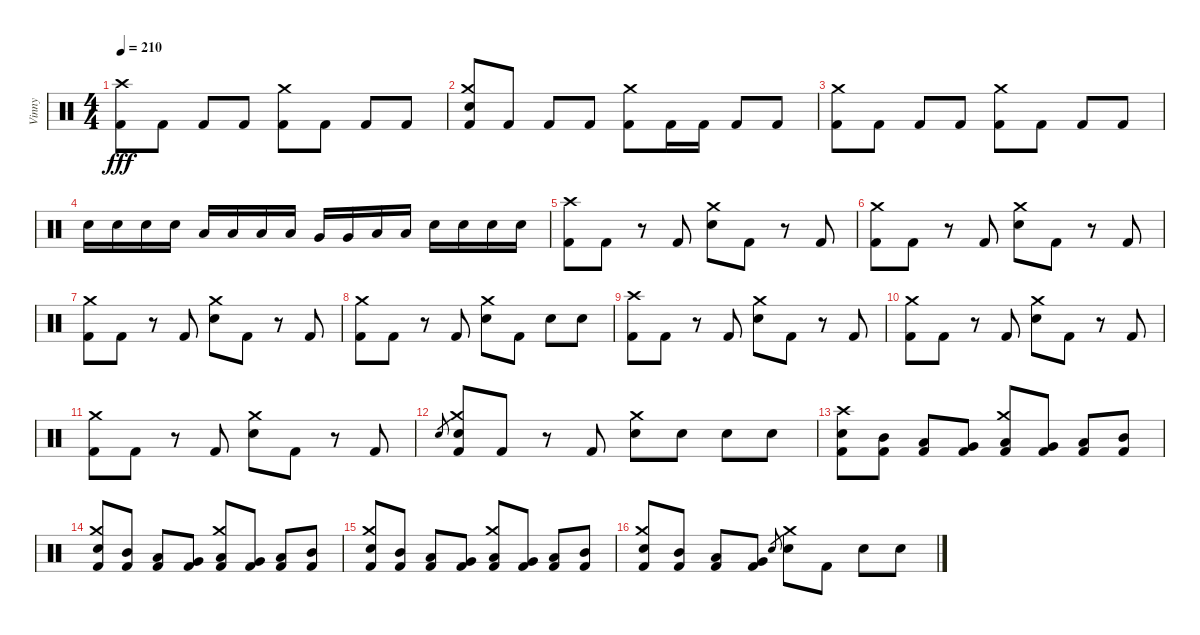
\track ("Vinny" "Vinny") {instrument percussion}
\staff {score}
\articulation defaults
\ts (4 4)
\tempo 210
\clef neutral
\ks c
("Crash high (hit)" "Kick (hit) 2").8{dy fff} "Kick (hit) 2".8 "Kick (hit) 2".8 "Kick (hit) 2".8 ("Crash medium (hit)" "Kick (hit) 2").8 "Kick (hit) 2".8 "Kick (hit) 2".8 "Kick (hit) 2".8 |
("Crash medium (hit)" "Electric Snare (hit)" "Kick (hit) 2").8 "Kick (hit) 2".8 "Kick (hit) 2".8 "Kick (hit) 2".8 ("Crash medium (hit)" "Kick (hit) 2").8 "Kick (hit) 2".16 "Kick (hit) 2".16 "Kick (hit) 2".8 "Kick (hit) 2".8 |
("Crash medium (hit)" "Kick (hit) 2").8 "Kick (hit) 2".8 "Kick (hit) 2".8 "Kick (hit) 2".8 ("Crash medium (hit)" "Kick (hit) 2").8 "Kick (hit) 2".8 "Kick (hit) 2".8 "Kick (hit) 2".8 |
"Electric Snare (hit)".16 "Electric Snare (hit)".16 "Electric Snare (hit)".16 "Electric Snare (hit)".16 "Low Tom (hit)".16 "Low Tom (hit)".16 "Low Tom (hit)".16 "Low Tom (hit)".16 "Very Low Tom (hit)".16 "Very Low Tom (hit)".16 "Low Floor Tom (hit)".16 "Low Floor Tom (hit)".16 "Electric Snare (hit)".16 "Electric Snare (hit)".16 "Electric Snare (hit)".16 "Electric Snare (hit)".16 |
("Crash high (hit)" "Kick (hit) 2").8 "Kick (hit) 2".8 r.8 "Kick (hit) 2".8 ("Crash medium (hit)" "Electric Snare (hit)").8 "Kick (hit) 2".8 r.8 "Kick (hit) 2".8 |
("Crash medium (hit)" "Kick (hit) 2").8 "Kick (hit) 2".8 r.8 "Kick (hit) 2".8 ("Crash medium (hit)" "Electric Snare (hit)").8 "Kick (hit) 2".8 r.8 "Kick (hit) 2".8 |
("Crash medium (hit)" "Kick (hit) 2").8 "Kick (hit) 2".8 r.8 "Kick (hit) 2".8 ("Crash medium (hit)" "Electric Snare (hit)").8 "Kick (hit) 2".8 r.8 "Kick (hit) 2".8 |
("Crash medium (hit)" "Kick (hit) 2").8 "Kick (hit) 2".8 r.8 "Kick (hit) 2".8 ("Crash medium (hit)" "Electric Snare (hit)").8 "Kick (hit) 2".8 "Electric Snare (hit)".8 "Electric Snare (hit)".8 |
("Crash high (hit)" "Kick (hit) 2").8 "Kick (hit) 2".8 r.8 "Kick (hit) 2".8 ("Crash medium (hit)" "Electric Snare (hit)").8 "Kick (hit) 2".8 r.8 "Kick (hit) 2".8 |
("Crash medium (hit)" "Kick (hit) 2").8 "Kick (hit) 2".8 r.8 "Kick (hit) 2".8 ("Crash medium (hit)" "Electric Snare (hit)").8 "Kick (hit) 2".8 r.8 "Kick (hit) 2".8 |
("Crash medium (hit)" "Kick (hit) 2").8 "Kick (hit) 2".8 r.8 "Kick (hit) 2".8 ("Crash medium (hit)" "Electric Snare (hit)").8 "Kick (hit) 2".8 r.8 "Kick (hit) 2".8 |
"Electric Snare (hit)".8{gr} ("Crash medium (hit)" "Electric Snare (hit)" "Kick (hit) 2").8 "Kick (hit) 2".8 r.8 "Kick (hit) 2".8 ("Crash medium (hit)" "Electric Snare (hit)").8 "Electric Snare (hit)".8 "Electric Snare (hit)".8 "Electric Snare (hit)".8 |
("Crash high (hit)" "Electric Snare (hit)" "Kick (hit) 2").8 ("Mid Tom (hit)" "Kick (hit) 2").8 ("Low Tom (hit)" "Kick (hit) 2").8 ("Very Low Tom (hit)" "Kick (hit) 2").8 ("Crash medium (hit)" "Low Floor Tom (hit)" "Kick (hit) 2").8 ("Very Low Tom (hit)" "Kick (hit) 2").8 ("Low Tom (hit)" "Kick (hit) 2").8 ("Mid Tom (hit)" "Kick (hit) 2").8 |
("Crash medium (hit)" "Electric Snare (hit)" "Kick (hit) 2").8 ("Mid Tom (hit)" "Kick (hit) 2").8 ("Low Tom (hit)" "Kick (hit) 2").8 ("Very Low Tom (hit)" "Kick (hit) 2").8 ("Crash medium (hit)" "Low Floor Tom (hit)" "Kick (hit) 2").8 ("Very Low Tom (hit)" "Kick (hit) 2").8 ("Low Tom (hit)" "Kick (hit) 2").8 ("Mid Tom (hit)" "Kick (hit) 2").8 |
("Crash medium (hit)" "Electric Snare (hit)" "Kick (hit) 2").8 ("Mid Tom (hit)" "Kick (hit) 2").8 ("Low Tom (hit)" "Kick (hit) 2").8 ("Very Low Tom (hit)" "Kick (hit) 2").8 ("Crash medium (hit)" "Low Floor Tom (hit)" "Kick (hit) 2").8 ("Very Low Tom (hit)" "Kick (hit) 2").8 ("Low Tom (hit)" "Kick (hit) 2").8 ("Mid Tom (hit)" "Kick (hit) 2").8 |
("Crash medium (hit)" "Electric Snare (hit)" "Kick (hit) 2").8 ("Mid Tom (hit)" "Kick (hit) 2").8 ("Low Tom (hit)" "Kick (hit) 2").8 ("Very Low Tom (hit)" "Kick (hit) 2").8 "Electric Snare (hit)".8{gr} ("Crash medium (hit)" "Electric Snare (hit)").8 "Kick (hit) 2".8 "Electric Snare (hit)".8 "Electric Snare (hit)".8
